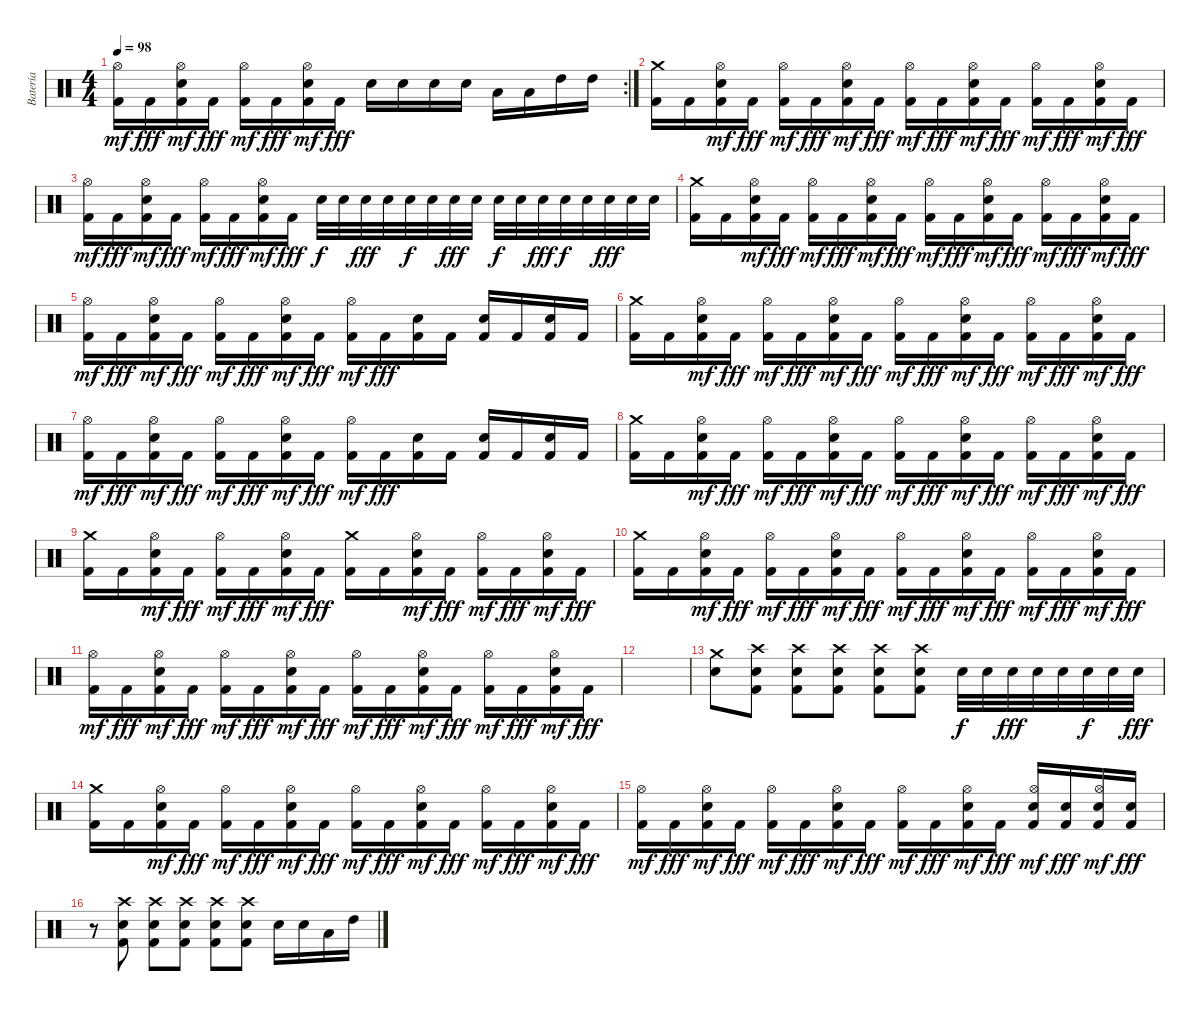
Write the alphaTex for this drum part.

\track ("Batería" "Batería") {instrument percussion}
\staff {score}
\articulation defaults
\rc 2
\ts (4 4)
\tempo 98
\clef neutral
\ks c
("Kick (hit) 2" "Hi-Hat (open)").16{dy mf} "Kick (hit) 2".16{dy fff} ("Kick (hit) 2" "Electric Snare (hit)" "Hi-Hat (open)").16{dy mf} "Kick (hit) 2".16{dy fff} ("Kick (hit) 2" "Hi-Hat (open)").16{dy mf} "Kick (hit) 2".16{dy fff} ("Kick (hit) 2" "Electric Snare (hit)" "Hi-Hat (open)").16{dy mf} "Kick (hit) 2".16{dy fff} "Electric Snare (hit)".16 "Electric Snare (hit)".16 "Electric Snare (hit)".16 "Electric Snare (hit)".16 "Low Tom (hit)".16 "Low Tom (hit)".16 "High Tom (hit)".16 "High Tom (hit)".16 |
("Kick (hit) 2" "Crash medium (hit)").16 "Kick (hit) 2".16 ("Kick (hit) 2" "Electric Snare (hit)" "Hi-Hat (open)").16{dy mf} "Kick (hit) 2".16{dy fff} ("Kick (hit) 2" "Hi-Hat (open)").16{dy mf} "Kick (hit) 2".16{dy fff} ("Kick (hit) 2" "Electric Snare (hit)" "Hi-Hat (open)").16{dy mf} "Kick (hit) 2".16{dy fff} ("Kick (hit) 2" "Hi-Hat (open)").16{dy mf} "Kick (hit) 2".16{dy fff} ("Kick (hit) 2" "Electric Snare (hit)" "Hi-Hat (open)").16{dy mf} "Kick (hit) 2".16{dy fff} ("Kick (hit) 2" "Hi-Hat (open)").16{dy mf} "Kick (hit) 2".16{dy fff} ("Kick (hit) 2" "Electric Snare (hit)" "Hi-Hat (open)").16{dy mf} "Kick (hit) 2".16{dy fff} |
("Kick (hit) 2" "Hi-Hat (open)").16{dy mf} "Kick (hit) 2".16{dy fff} ("Kick (hit) 2" "Electric Snare (hit)" "Hi-Hat (open)").16{dy mf} "Kick (hit) 2".16{dy fff} ("Kick (hit) 2" "Hi-Hat (open)").16{dy mf} "Kick (hit) 2".16{dy fff} ("Kick (hit) 2" "Electric Snare (hit)" "Hi-Hat (open)").16{dy mf} "Kick (hit) 2".16{dy fff} "Electric Snare (hit)".32{dy f} "Electric Snare (hit)".32 "Electric Snare (hit)".32{dy fff} "Electric Snare (hit)".32 "Electric Snare (hit)".32{dy f} "Electric Snare (hit)".32 "Electric Snare (hit)".32{dy fff} "Electric Snare (hit)".32 "Electric Snare (hit)".32{dy f} "Electric Snare (hit)".32 "Electric Snare (hit)".32{dy fff} "Electric Snare (hit)".32{dy f} "Electric Snare (hit)".32 "Electric Snare (hit)".32{dy fff} "Electric Snare (hit)".32 "Electric Snare (hit)".32 |
("Kick (hit) 2" "Crash medium (hit)").16 "Kick (hit) 2".16 ("Kick (hit) 2" "Electric Snare (hit)" "Hi-Hat (open)").16{dy mf} "Kick (hit) 2".16{dy fff} ("Kick (hit) 2" "Hi-Hat (open)").16{dy mf} "Kick (hit) 2".16{dy fff} ("Kick (hit) 2" "Electric Snare (hit)" "Hi-Hat (open)").16{dy mf} "Kick (hit) 2".16{dy fff} ("Kick (hit) 2" "Hi-Hat (open)").16{dy mf} "Kick (hit) 2".16{dy fff} ("Kick (hit) 2" "Electric Snare (hit)" "Hi-Hat (open)").16{dy mf} "Kick (hit) 2".16{dy fff} ("Kick (hit) 2" "Hi-Hat (open)").16{dy mf} "Kick (hit) 2".16{dy fff} ("Kick (hit) 2" "Electric Snare (hit)" "Hi-Hat (open)").16{dy mf} "Kick (hit) 2".16{dy fff} |
("Kick (hit) 2" "Hi-Hat (open)").16{dy mf} "Kick (hit) 2".16{dy fff} ("Kick (hit) 2" "Electric Snare (hit)" "Hi-Hat (open)").16{dy mf} "Kick (hit) 2".16{dy fff} ("Kick (hit) 2" "Hi-Hat (open)").16{dy mf} "Kick (hit) 2".16{dy fff} ("Kick (hit) 2" "Electric Snare (hit)" "Hi-Hat (open)").16{dy mf} "Kick (hit) 2".16{dy fff} ("Kick (hit) 2" "Hi-Hat (open)").16{dy mf} "Kick (hit) 2".16{dy fff} ("Kick (hit) 2" "Electric Snare (hit)").16 "Kick (hit) 2".16 ("Kick (hit) 2" "Electric Snare (hit)").16 "Kick (hit) 2".16 ("Kick (hit) 2" "Electric Snare (hit)").16 "Kick (hit) 2".16 |
("Kick (hit) 2" "Crash medium (hit)").16 "Kick (hit) 2".16 ("Kick (hit) 2" "Electric Snare (hit)" "Hi-Hat (open)").16{dy mf} "Kick (hit) 2".16{dy fff} ("Kick (hit) 2" "Hi-Hat (open)").16{dy mf} "Kick (hit) 2".16{dy fff} ("Kick (hit) 2" "Electric Snare (hit)" "Hi-Hat (open)").16{dy mf} "Kick (hit) 2".16{dy fff} ("Kick (hit) 2" "Hi-Hat (open)").16{dy mf} "Kick (hit) 2".16{dy fff} ("Kick (hit) 2" "Electric Snare (hit)" "Hi-Hat (open)").16{dy mf} "Kick (hit) 2".16{dy fff} ("Kick (hit) 2" "Hi-Hat (open)").16{dy mf} "Kick (hit) 2".16{dy fff} ("Kick (hit) 2" "Electric Snare (hit)" "Hi-Hat (open)").16{dy mf} "Kick (hit) 2".16{dy fff} |
("Kick (hit) 2" "Hi-Hat (open)").16{dy mf} "Kick (hit) 2".16{dy fff} ("Kick (hit) 2" "Electric Snare (hit)" "Hi-Hat (open)").16{dy mf} "Kick (hit) 2".16{dy fff} ("Kick (hit) 2" "Hi-Hat (open)").16{dy mf} "Kick (hit) 2".16{dy fff} ("Kick (hit) 2" "Electric Snare (hit)" "Hi-Hat (open)").16{dy mf} "Kick (hit) 2".16{dy fff} ("Kick (hit) 2" "Hi-Hat (open)").16{dy mf} "Kick (hit) 2".16{dy fff} ("Kick (hit) 2" "Electric Snare (hit)").16 "Kick (hit) 2".16 ("Kick (hit) 2" "Electric Snare (hit)").16 "Kick (hit) 2".16 ("Kick (hit) 2" "Electric Snare (hit)").16 "Kick (hit) 2".16 |
("Kick (hit) 2" "Crash medium (hit)").16 "Kick (hit) 2".16 ("Kick (hit) 2" "Electric Snare (hit)" "Hi-Hat (open)").16{dy mf} "Kick (hit) 2".16{dy fff} ("Kick (hit) 2" "Hi-Hat (open)").16{dy mf} "Kick (hit) 2".16{dy fff} ("Kick (hit) 2" "Electric Snare (hit)" "Hi-Hat (open)").16{dy mf} "Kick (hit) 2".16{dy fff} ("Kick (hit) 2" "Hi-Hat (open)").16{dy mf} "Kick (hit) 2".16{dy fff} ("Kick (hit) 2" "Electric Snare (hit)" "Hi-Hat (open)").16{dy mf} "Kick (hit) 2".16{dy fff} ("Kick (hit) 2" "Hi-Hat (open)").16{dy mf} "Kick (hit) 2".16{dy fff} ("Kick (hit) 2" "Electric Snare (hit)" "Hi-Hat (open)").16{dy mf} "Kick (hit) 2".16{dy fff} |
("Kick (hit) 2" "Crash medium (hit)").16 "Kick (hit) 2".16 ("Kick (hit) 2" "Electric Snare (hit)" "Hi-Hat (open)").16{dy mf} "Kick (hit) 2".16{dy fff} ("Kick (hit) 2" "Hi-Hat (open)").16{dy mf} "Kick (hit) 2".16{dy fff} ("Kick (hit) 2" "Electric Snare (hit)" "Hi-Hat (open)").16{dy mf} "Kick (hit) 2".16{dy fff} ("Kick (hit) 2" "Crash medium (hit)").16 "Kick (hit) 2".16 ("Kick (hit) 2" "Electric Snare (hit)" "Hi-Hat (open)").16{dy mf} "Kick (hit) 2".16{dy fff} ("Kick (hit) 2" "Hi-Hat (open)").16{dy mf} "Kick (hit) 2".16{dy fff} ("Kick (hit) 2" "Electric Snare (hit)" "Hi-Hat (open)").16{dy mf} "Kick (hit) 2".16{dy fff} |
("Kick (hit) 2" "Crash medium (hit)").16 "Kick (hit) 2".16 ("Kick (hit) 2" "Electric Snare (hit)" "Hi-Hat (open)").16{dy mf} "Kick (hit) 2".16{dy fff} ("Kick (hit) 2" "Hi-Hat (open)").16{dy mf} "Kick (hit) 2".16{dy fff} ("Kick (hit) 2" "Electric Snare (hit)" "Hi-Hat (open)").16{dy mf} "Kick (hit) 2".16{dy fff} ("Kick (hit) 2" "Hi-Hat (open)").16{dy mf} "Kick (hit) 2".16{dy fff} ("Kick (hit) 2" "Electric Snare (hit)" "Hi-Hat (open)").16{dy mf} "Kick (hit) 2".16{dy fff} ("Kick (hit) 2" "Hi-Hat (open)").16{dy mf} "Kick (hit) 2".16{dy fff} ("Kick (hit) 2" "Electric Snare (hit)" "Hi-Hat (open)").16{dy mf} "Kick (hit) 2".16{dy fff} |
("Kick (hit) 2" "Hi-Hat (open)").16{dy mf} "Kick (hit) 2".16{dy fff} ("Kick (hit) 2" "Electric Snare (hit)" "Hi-Hat (open)").16{dy mf} "Kick (hit) 2".16{dy fff} ("Kick (hit) 2" "Hi-Hat (open)").16{dy mf} "Kick (hit) 2".16{dy fff} ("Kick (hit) 2" "Electric Snare (hit)" "Hi-Hat (open)").16{dy mf} "Kick (hit) 2".16{dy fff} ("Kick (hit) 2" "Hi-Hat (open)").16{dy mf} "Kick (hit) 2".16{dy fff} ("Kick (hit) 2" "Electric Snare (hit)" "Hi-Hat (open)").16{dy mf} "Kick (hit) 2".16{dy fff} ("Kick (hit) 2" "Hi-Hat (open)").16{dy mf} "Kick (hit) 2".16{dy fff} ("Kick (hit) 2" "Electric Snare (hit)" "Hi-Hat (open)").16{dy mf} "Kick (hit) 2".16{dy fff} |
|
("Electric Snare (hit)" "Crash medium (hit)").8 ("Kick (hit) 2" "Electric Snare (hit)" "Crash high (hit)").8 ("Kick (hit) 2" "Electric Snare (hit)" "Crash high (hit)").8 ("Kick (hit) 2" "Electric Snare (hit)" "Crash high (hit)").8 ("Kick (hit) 2" "Electric Snare (hit)" "Crash high (hit)").8 ("Kick (hit) 2" "Electric Snare (hit)" "Crash high (hit)").8 "Electric Snare (hit)".32{dy f} "Electric Snare (hit)".32 "Electric Snare (hit)".32{dy fff} "Electric Snare (hit)".32 "Electric Snare (hit)".32 "Electric Snare (hit)".32{dy f} "Electric Snare (hit)".32 "Electric Snare (hit)".32{dy fff} |
("Kick (hit) 2" "Crash medium (hit)").16 "Kick (hit) 2".16 ("Kick (hit) 2" "Electric Snare (hit)" "Hi-Hat (open)").16{dy mf} "Kick (hit) 2".16{dy fff} ("Kick (hit) 2" "Hi-Hat (open)").16{dy mf} "Kick (hit) 2".16{dy fff} ("Kick (hit) 2" "Electric Snare (hit)" "Hi-Hat (open)").16{dy mf} "Kick (hit) 2".16{dy fff} ("Kick (hit) 2" "Hi-Hat (open)").16{dy mf} "Kick (hit) 2".16{dy fff} ("Kick (hit) 2" "Electric Snare (hit)" "Hi-Hat (open)").16{dy mf} "Kick (hit) 2".16{dy fff} ("Kick (hit) 2" "Hi-Hat (open)").16{dy mf} "Kick (hit) 2".16{dy fff} ("Kick (hit) 2" "Electric Snare (hit)" "Hi-Hat (open)").16{dy mf} "Kick (hit) 2".16{dy fff} |
("Kick (hit) 2" "Hi-Hat (open)").16{dy mf} "Kick (hit) 2".16{dy fff} ("Kick (hit) 2" "Electric Snare (hit)" "Hi-Hat (open)").16{dy mf} "Kick (hit) 2".16{dy fff} ("Kick (hit) 2" "Hi-Hat (open)").16{dy mf} "Kick (hit) 2".16{dy fff} ("Kick (hit) 2" "Electric Snare (hit)" "Hi-Hat (open)").16{dy mf} "Kick (hit) 2".16{dy fff} ("Kick (hit) 2" "Hi-Hat (open)").16{dy mf} "Kick (hit) 2".16{dy fff} ("Kick (hit) 2" "Electric Snare (hit)" "Hi-Hat (open)").16{dy mf} "Kick (hit) 2".16{dy fff} ("Kick (hit) 2" "Electric Snare (hit)" "Hi-Hat (open)").16{dy mf} ("Kick (hit) 2" "Electric Snare (hit)").16{dy fff} ("Kick (hit) 2" "Electric Snare (hit)" "Hi-Hat (open)").16{dy mf} ("Kick (hit) 2" "Electric Snare (hit)").16{dy fff} |
r.8 ("Kick (hit) 2" "Electric Snare (hit)" "Crash high (hit)").8 ("Kick (hit) 2" "Electric Snare (hit)" "Crash high (hit)").8 ("Kick (hit) 2" "Electric Snare (hit)" "Crash high (hit)").8 ("Kick (hit) 2" "Electric Snare (hit)" "Crash high (hit)").8 ("Kick (hit) 2" "Electric Snare (hit)" "Crash high (hit)").8 "Electric Snare (hit)".16 "Electric Snare (hit)".16 "Low Tom (hit)".16 "High Tom (hit)".16
